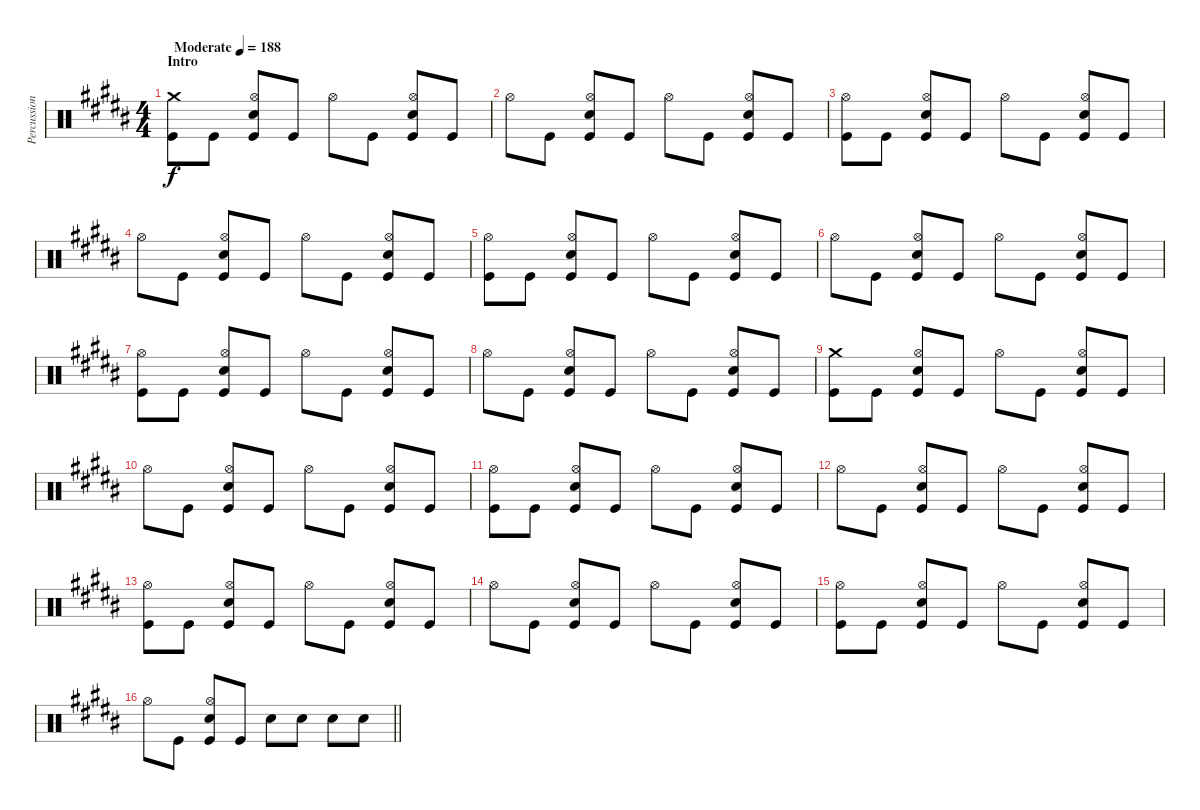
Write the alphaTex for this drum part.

\track ("Percussion" "Percussion") {instrument percussion}
\staff {score}
\articulation defaults
\ts (4 4)
\section ("" "Intro")
\tempo (188 "Moderate")
\clef neutral
\ks b
("Crash medium (hit)" "Kick (hit)").8{dy f} "Kick (hit)".8 ("Hi-Hat (open)" "Electric Snare (hit)" "Kick (hit)").8 "Kick (hit)".8 "Hi-Hat (open)".8 "Kick (hit)".8 ("Hi-Hat (open)" "Electric Snare (hit)" "Kick (hit)").8 "Kick (hit)".8 |
"Hi-Hat (open)".8 "Kick (hit)".8 ("Hi-Hat (open)" "Electric Snare (hit)" "Kick (hit)").8 "Kick (hit)".8 "Hi-Hat (open)".8 "Kick (hit)".8 ("Hi-Hat (open)" "Electric Snare (hit)" "Kick (hit)").8 "Kick (hit)".8 |
("Hi-Hat (open)" "Kick (hit)").8 "Kick (hit)".8 ("Hi-Hat (open)" "Electric Snare (hit)" "Kick (hit)").8 "Kick (hit)".8 "Hi-Hat (open)".8 "Kick (hit)".8 ("Hi-Hat (open)" "Electric Snare (hit)" "Kick (hit)").8 "Kick (hit)".8 |
"Hi-Hat (open)".8 "Kick (hit)".8 ("Hi-Hat (open)" "Electric Snare (hit)" "Kick (hit)").8 "Kick (hit)".8 "Hi-Hat (open)".8 "Kick (hit)".8 ("Hi-Hat (open)" "Electric Snare (hit)" "Kick (hit)").8 "Kick (hit)".8 |
("Hi-Hat (open)" "Kick (hit)").8 "Kick (hit)".8 ("Hi-Hat (open)" "Electric Snare (hit)" "Kick (hit)").8 "Kick (hit)".8 "Hi-Hat (open)".8 "Kick (hit)".8 ("Hi-Hat (open)" "Electric Snare (hit)" "Kick (hit)").8 "Kick (hit)".8 |
"Hi-Hat (open)".8 "Kick (hit)".8 ("Hi-Hat (open)" "Electric Snare (hit)" "Kick (hit)").8 "Kick (hit)".8 "Hi-Hat (open)".8 "Kick (hit)".8 ("Hi-Hat (open)" "Electric Snare (hit)" "Kick (hit)").8 "Kick (hit)".8 |
("Hi-Hat (open)" "Kick (hit)").8 "Kick (hit)".8 ("Hi-Hat (open)" "Electric Snare (hit)" "Kick (hit)").8 "Kick (hit)".8 "Hi-Hat (open)".8 "Kick (hit)".8 ("Hi-Hat (open)" "Electric Snare (hit)" "Kick (hit)").8 "Kick (hit)".8 |
"Hi-Hat (open)".8 "Kick (hit)".8 ("Hi-Hat (open)" "Electric Snare (hit)" "Kick (hit)").8 "Kick (hit)".8 "Hi-Hat (open)".8 "Kick (hit)".8 ("Hi-Hat (open)" "Electric Snare (hit)" "Kick (hit)").8 "Kick (hit)".8 |
("Crash medium (hit)" "Kick (hit)").8 "Kick (hit)".8 ("Hi-Hat (open)" "Electric Snare (hit)" "Kick (hit)").8 "Kick (hit)".8 "Hi-Hat (open)".8 "Kick (hit)".8 ("Hi-Hat (open)" "Electric Snare (hit)" "Kick (hit)").8 "Kick (hit)".8 |
"Hi-Hat (open)".8 "Kick (hit)".8 ("Hi-Hat (open)" "Electric Snare (hit)" "Kick (hit)").8 "Kick (hit)".8 "Hi-Hat (open)".8 "Kick (hit)".8 ("Hi-Hat (open)" "Electric Snare (hit)" "Kick (hit)").8 "Kick (hit)".8 |
("Hi-Hat (open)" "Kick (hit)").8 "Kick (hit)".8 ("Hi-Hat (open)" "Electric Snare (hit)" "Kick (hit)").8 "Kick (hit)".8 "Hi-Hat (open)".8 "Kick (hit)".8 ("Hi-Hat (open)" "Electric Snare (hit)" "Kick (hit)").8 "Kick (hit)".8 |
"Hi-Hat (open)".8 "Kick (hit)".8 ("Hi-Hat (open)" "Electric Snare (hit)" "Kick (hit)").8 "Kick (hit)".8 "Hi-Hat (open)".8 "Kick (hit)".8 ("Hi-Hat (open)" "Electric Snare (hit)" "Kick (hit)").8 "Kick (hit)".8 |
("Hi-Hat (open)" "Kick (hit)").8 "Kick (hit)".8 ("Hi-Hat (open)" "Electric Snare (hit)" "Kick (hit)").8 "Kick (hit)".8 "Hi-Hat (open)".8 "Kick (hit)".8 ("Hi-Hat (open)" "Electric Snare (hit)" "Kick (hit)").8 "Kick (hit)".8 |
"Hi-Hat (open)".8 "Kick (hit)".8 ("Hi-Hat (open)" "Electric Snare (hit)" "Kick (hit)").8 "Kick (hit)".8 "Hi-Hat (open)".8 "Kick (hit)".8 ("Hi-Hat (open)" "Electric Snare (hit)" "Kick (hit)").8 "Kick (hit)".8 |
("Hi-Hat (open)" "Kick (hit)").8 "Kick (hit)".8 ("Hi-Hat (open)" "Electric Snare (hit)" "Kick (hit)").8 "Kick (hit)".8 "Hi-Hat (open)".8 "Kick (hit)".8 ("Hi-Hat (open)" "Electric Snare (hit)" "Kick (hit)").8 "Kick (hit)".8 |
\barLineRight lightlight "Hi-Hat (open)".8 "Kick (hit)".8
("Hi-Hat (open)" "Electric Snare (hit)" "Kick (hit)").8 "Kick (hit)".8 "Electric Snare (hit)".8 "Electric Snare (hit)".8 "Electric Snare (hit)".8 "Electric Snare (hit)".8
